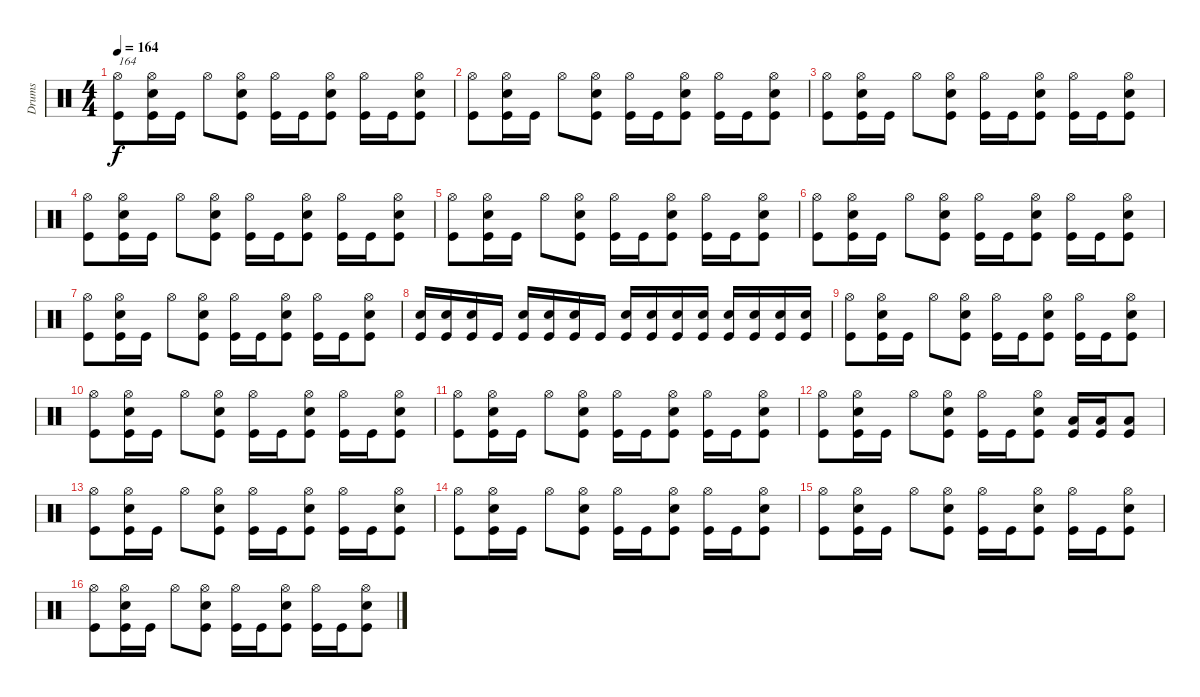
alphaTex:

\track ("Drums" "Drums") {instrument percussion}
\staff {score}
\articulation defaults
\ts (4 4)
\tempo 164
\clef neutral
\ks c
("Hi-Hat (open)" "Kick (hit)").8{txt "164" dy f} ("Hi-Hat (open)" "Snare (hit) 2" "Kick (hit)").16 "Kick (hit)".16 "Hi-Hat (open)".8 ("Hi-Hat (open)" "Snare (hit) 2" "Kick (hit)").8 ("Hi-Hat (open)" "Kick (hit)").16 "Kick (hit)".16 ("Hi-Hat (open)" "Snare (hit) 2" "Kick (hit)").8 ("Hi-Hat (open)" "Kick (hit)").16 "Kick (hit)".16 ("Hi-Hat (open)" "Snare (hit) 2" "Kick (hit)").8 |
("Hi-Hat (open)" "Kick (hit)").8 ("Hi-Hat (open)" "Snare (hit) 2" "Kick (hit)").16 "Kick (hit)".16 "Hi-Hat (open)".8 ("Hi-Hat (open)" "Snare (hit) 2" "Kick (hit)").8 ("Hi-Hat (open)" "Kick (hit)").16 "Kick (hit)".16 ("Hi-Hat (open)" "Snare (hit) 2" "Kick (hit)").8 ("Hi-Hat (open)" "Kick (hit)").16 "Kick (hit)".16 ("Hi-Hat (open)" "Snare (hit) 2" "Kick (hit)").8 |
("Hi-Hat (open)" "Kick (hit)").8 ("Hi-Hat (open)" "Snare (hit) 2" "Kick (hit)").16 "Kick (hit)".16 "Hi-Hat (open)".8 ("Hi-Hat (open)" "Snare (hit) 2" "Kick (hit)").8 ("Hi-Hat (open)" "Kick (hit)").16 "Kick (hit)".16 ("Hi-Hat (open)" "Snare (hit) 2" "Kick (hit)").8 ("Hi-Hat (open)" "Kick (hit)").16 "Kick (hit)".16 ("Hi-Hat (open)" "Snare (hit) 2" "Kick (hit)").8 |
("Hi-Hat (open)" "Kick (hit)").8 ("Hi-Hat (open)" "Snare (hit) 2" "Kick (hit)").16 "Kick (hit)".16 "Hi-Hat (open)".8 ("Hi-Hat (open)" "Snare (hit) 2" "Kick (hit)").8 ("Hi-Hat (open)" "Kick (hit)").16 "Kick (hit)".16 ("Hi-Hat (open)" "Snare (hit) 2" "Kick (hit)").8 ("Hi-Hat (open)" "Kick (hit)").16 "Kick (hit)".16 ("Hi-Hat (open)" "Snare (hit) 2" "Kick (hit)").8 |
("Hi-Hat (open)" "Kick (hit)").8 ("Hi-Hat (open)" "Snare (hit) 2" "Kick (hit)").16 "Kick (hit)".16 "Hi-Hat (open)".8 ("Hi-Hat (open)" "Snare (hit) 2" "Kick (hit)").8 ("Hi-Hat (open)" "Kick (hit)").16 "Kick (hit)".16 ("Hi-Hat (open)" "Snare (hit) 2" "Kick (hit)").8 ("Hi-Hat (open)" "Kick (hit)").16 "Kick (hit)".16 ("Hi-Hat (open)" "Snare (hit) 2" "Kick (hit)").8 |
("Hi-Hat (open)" "Kick (hit)").8 ("Hi-Hat (open)" "Snare (hit) 2" "Kick (hit)").16 "Kick (hit)".16 "Hi-Hat (open)".8 ("Hi-Hat (open)" "Snare (hit) 2" "Kick (hit)").8 ("Hi-Hat (open)" "Kick (hit)").16 "Kick (hit)".16 ("Hi-Hat (open)" "Snare (hit) 2" "Kick (hit)").8 ("Hi-Hat (open)" "Kick (hit)").16 "Kick (hit)".16 ("Hi-Hat (open)" "Snare (hit) 2" "Kick (hit)").8 |
("Hi-Hat (open)" "Kick (hit)").8 ("Hi-Hat (open)" "Snare (hit) 2" "Kick (hit)").16 "Kick (hit)".16 "Hi-Hat (open)".8 ("Hi-Hat (open)" "Snare (hit) 2" "Kick (hit)").8 ("Hi-Hat (open)" "Kick (hit)").16 "Kick (hit)".16 ("Hi-Hat (open)" "Snare (hit) 2" "Kick (hit)").8 ("Hi-Hat (open)" "Kick (hit)").16 "Kick (hit)".16 ("Hi-Hat (open)" "Snare (hit) 2" "Kick (hit)").8 |
("Snare (hit) 2" "Kick (hit)").16 ("Snare (hit) 2" "Kick (hit)").16 ("Snare (hit) 2" "Kick (hit)").16 "Kick (hit)".16 ("Snare (hit) 2" "Kick (hit)").16 ("Snare (hit) 2" "Kick (hit)").16 ("Snare (hit) 2" "Kick (hit)").16 "Kick (hit)".16 ("Snare (hit) 2" "Kick (hit)").16 ("Snare (hit) 2" "Kick (hit)").16 ("Snare (hit) 2" "Kick (hit)").16 ("Snare (hit) 2" "Kick (hit)").16 ("Snare (hit) 2" "Kick (hit)").16 ("Snare (hit) 2" "Kick (hit)").16 ("Snare (hit) 2" "Kick (hit)").16 ("Snare (hit) 2" "Kick (hit)").16 |
("Hi-Hat (open)" "Kick (hit)").8 ("Hi-Hat (open)" "Snare (hit) 2" "Kick (hit)").16 "Kick (hit)".16 "Hi-Hat (open)".8 ("Hi-Hat (open)" "Snare (hit) 2" "Kick (hit)").8 ("Hi-Hat (open)" "Kick (hit)").16 "Kick (hit)".16 ("Hi-Hat (open)" "Snare (hit) 2" "Kick (hit)").8 ("Hi-Hat (open)" "Kick (hit)").16 "Kick (hit)".16 ("Hi-Hat (open)" "Snare (hit) 2" "Kick (hit)").8 |
("Hi-Hat (open)" "Kick (hit)").8 ("Hi-Hat (open)" "Snare (hit) 2" "Kick (hit)").16 "Kick (hit)".16 "Hi-Hat (open)".8 ("Hi-Hat (open)" "Snare (hit) 2" "Kick (hit)").8 ("Hi-Hat (open)" "Kick (hit)").16 "Kick (hit)".16 ("Hi-Hat (open)" "Snare (hit) 2" "Kick (hit)").8 ("Hi-Hat (open)" "Kick (hit)").16 "Kick (hit)".16 ("Hi-Hat (open)" "Snare (hit) 2" "Kick (hit)").8 |
("Hi-Hat (open)" "Kick (hit)").8 ("Hi-Hat (open)" "Snare (hit) 2" "Kick (hit)").16 "Kick (hit)".16 "Hi-Hat (open)".8 ("Hi-Hat (open)" "Snare (hit) 2" "Kick (hit)").8 ("Hi-Hat (open)" "Kick (hit)").16 "Kick (hit)".16 ("Hi-Hat (open)" "Snare (hit) 2" "Kick (hit)").8 ("Hi-Hat (open)" "Kick (hit)").16 "Kick (hit)".16 ("Hi-Hat (open)" "Snare (hit) 2" "Kick (hit)").8 |
("Hi-Hat (open)" "Kick (hit)").8 ("Hi-Hat (open)" "Snare (hit) 2" "Kick (hit)").16 "Kick (hit)".16 "Hi-Hat (open)".8 ("Hi-Hat (open)" "Snare (hit) 2" "Kick (hit)").8 ("Hi-Hat (open)" "Kick (hit)").16 "Kick (hit)".16 ("Hi-Hat (open)" "Snare (hit) 2" "Kick (hit)").8 ("Low Floor Tom (hit)" "Kick (hit)").16 ("Low Floor Tom (hit)" "Kick (hit)").16 ("Low Floor Tom (hit)" "Kick (hit)").8 |
("Hi-Hat (open)" "Kick (hit)").8 ("Hi-Hat (open)" "Snare (hit) 2" "Kick (hit)").16 "Kick (hit)".16 "Hi-Hat (open)".8 ("Hi-Hat (open)" "Snare (hit) 2" "Kick (hit)").8 ("Hi-Hat (open)" "Kick (hit)").16 "Kick (hit)".16 ("Hi-Hat (open)" "Snare (hit) 2" "Kick (hit)").8 ("Hi-Hat (open)" "Kick (hit)").16 "Kick (hit)".16 ("Hi-Hat (open)" "Snare (hit) 2" "Kick (hit)").8 |
("Hi-Hat (open)" "Kick (hit)").8 ("Hi-Hat (open)" "Snare (hit) 2" "Kick (hit)").16 "Kick (hit)".16 "Hi-Hat (open)".8 ("Hi-Hat (open)" "Snare (hit) 2" "Kick (hit)").8 ("Hi-Hat (open)" "Kick (hit)").16 "Kick (hit)".16 ("Hi-Hat (open)" "Snare (hit) 2" "Kick (hit)").8 ("Hi-Hat (open)" "Kick (hit)").16 "Kick (hit)".16 ("Hi-Hat (open)" "Snare (hit) 2" "Kick (hit)").8 |
("Hi-Hat (open)" "Kick (hit)").8 ("Hi-Hat (open)" "Snare (hit) 2" "Kick (hit)").16 "Kick (hit)".16 "Hi-Hat (open)".8 ("Hi-Hat (open)" "Snare (hit) 2" "Kick (hit)").8 ("Hi-Hat (open)" "Kick (hit)").16 "Kick (hit)".16 ("Hi-Hat (open)" "Snare (hit) 2" "Kick (hit)").8 ("Hi-Hat (open)" "Kick (hit)").16 "Kick (hit)".16 ("Hi-Hat (open)" "Snare (hit) 2" "Kick (hit)").8 |
("Hi-Hat (open)" "Kick (hit)").8 ("Hi-Hat (open)" "Snare (hit) 2" "Kick (hit)").16 "Kick (hit)".16 "Hi-Hat (open)".8 ("Hi-Hat (open)" "Snare (hit) 2" "Kick (hit)").8 ("Hi-Hat (open)" "Kick (hit)").16 "Kick (hit)".16 ("Hi-Hat (open)" "Snare (hit) 2" "Kick (hit)").8 ("Hi-Hat (open)" "Kick (hit)").16 "Kick (hit)".16 ("Hi-Hat (open)" "Snare (hit) 2" "Kick (hit)").8
